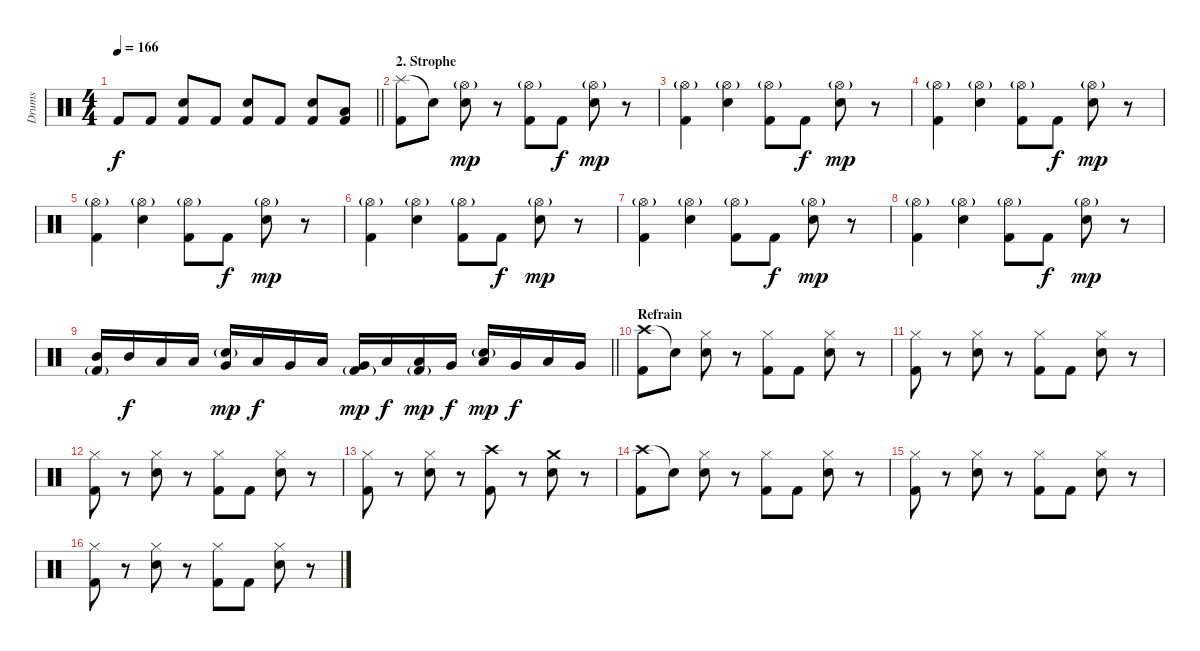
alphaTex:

\track ("Drums" "Drums") {instrument percussion}
\staff {score}
\articulation defaults
\ts (4 4)
\tempo 166
\clef neutral
\barLineRight lightlight
\ks c "Kick (hit) 2".8{dy f} "Kick (hit) 2".8
("Kick (hit) 2" "Electric Snare (hit)").8 "Kick (hit) 2".8 ("Kick (hit) 2" "Electric Snare (hit)").8 "Kick (hit) 2".8 ("Kick (hit) 2" "Electric Snare (hit)").8 ("Low Floor Tom (hit)" "Kick (hit) 2").8 |
\section ("" "2. Strophe")
("Splash (hit)" "Kick (hit) 2").8 "Snare (hit)"{t}.8 ("Hi-Hat (open)"{g} "Electric Snare (hit)").8{dy mp} r.8 ("Hi-Hat (open)"{g} "Kick (hit) 2").8 "Kick (hit) 2".8{dy f} ("Hi-Hat (open)"{g} "Electric Snare (hit)").8{dy mp} r.8 |
("Hi-Hat (open)"{g} "Kick (hit) 2").4 ("Hi-Hat (open)"{g} "Electric Snare (hit)").4 ("Hi-Hat (open)"{g} "Kick (hit) 2").8 "Kick (hit) 2".8{dy f} ("Hi-Hat (open)"{g} "Electric Snare (hit)").8{dy mp} r.8 |
("Hi-Hat (open)"{g} "Kick (hit) 2").4 ("Hi-Hat (open)"{g} "Electric Snare (hit)").4 ("Hi-Hat (open)"{g} "Kick (hit) 2").8 "Kick (hit) 2".8{dy f} ("Hi-Hat (open)"{g} "Electric Snare (hit)").8{dy mp} r.8 |
("Hi-Hat (open)"{g} "Kick (hit) 2").4 ("Hi-Hat (open)"{g} "Electric Snare (hit)").4 ("Hi-Hat (open)"{g} "Kick (hit) 2").8 "Kick (hit) 2".8{dy f} ("Hi-Hat (open)"{g} "Electric Snare (hit)").8{dy mp} r.8 |
("Hi-Hat (open)"{g} "Kick (hit) 2").4 ("Hi-Hat (open)"{g} "Electric Snare (hit)").4 ("Hi-Hat (open)"{g} "Kick (hit) 2").8 "Kick (hit) 2".8{dy f} ("Hi-Hat (open)"{g} "Electric Snare (hit)").8{dy mp} r.8 |
("Hi-Hat (open)"{g} "Kick (hit) 2").4 ("Hi-Hat (open)"{g} "Electric Snare (hit)").4 ("Hi-Hat (open)"{g} "Kick (hit) 2").8 "Kick (hit) 2".8{dy f} ("Hi-Hat (open)"{g} "Electric Snare (hit)").8{dy mp} r.8 |
("Hi-Hat (open)"{g} "Kick (hit) 2").4 ("Hi-Hat (open)"{g} "Electric Snare (hit)").4 ("Hi-Hat (open)"{g} "Kick (hit) 2").8 "Kick (hit) 2".8{dy f} ("Hi-Hat (open)"{g} "Electric Snare (hit)").8{dy mp} r.8 |
\barLineRight lightlight
("Mid Tom (hit)" "Kick (hit) 2"{g}).16 "Mid Tom (hit)".16{dy f} "Low Tom (hit)".16 "Low Tom (hit)".16 ("Very Low Tom (hit)" "Electric Snare (hit)"{g}).16{dy mp} "Low Tom (hit)".16{dy f} "Very Low Tom (hit)".16 "Low Floor Tom (hit)".16 ("Very Low Tom (hit)" "Kick (hit) 2"{g}).16{dy mp} "Low Floor Tom (hit)".16{dy f} ("Low Tom (hit)" "Kick (hit) 2"{g}).16{dy mp} "Very Low Tom (hit)".16{dy f} ("Low Tom (hit)" "Electric Snare (hit)"{g}).16{dy mp} "Very Low Tom (hit)".16{dy f} "Low Floor Tom (hit)".16 "Very Low Tom (hit)".16 |
\section ("" "Refrain")
("Crash high (hit)" "Kick (hit) 2").8 "Snare (hit)"{t}.8 ("Hi-Hat (closed)" "Electric Snare (hit)").8 r.8 ("Hi-Hat (closed)" "Kick (hit) 2").8 "Kick (hit) 2".8 ("Hi-Hat (closed)" "Electric Snare (hit)").8 r.8 |
("Hi-Hat (closed)" "Kick (hit) 2").8 r.8 ("Hi-Hat (closed)" "Electric Snare (hit)").8 r.8 ("Hi-Hat (closed)" "Kick (hit) 2").8 "Kick (hit) 2".8 ("Hi-Hat (closed)" "Electric Snare (hit)").8 r.8 |
("Hi-Hat (closed)" "Kick (hit) 2").8 r.8 ("Hi-Hat (closed)" "Electric Snare (hit)").8 r.8 ("Hi-Hat (closed)" "Kick (hit) 2").8 "Kick (hit) 2".8 ("Hi-Hat (closed)" "Electric Snare (hit)").8 r.8 |
("Hi-Hat (closed)" "Kick (hit) 2").8 r.8 ("Hi-Hat (closed)" "Electric Snare (hit)").8 r.8 ("Crash high (hit)" "Kick (hit) 2").8 r.8 ("Crash medium (hit)" "Electric Snare (hit)").8 r.8 |
("Crash high (hit)" "Kick (hit) 2").8 "Snare (hit)"{t}.8 ("Hi-Hat (closed)" "Electric Snare (hit)").8 r.8 ("Hi-Hat (closed)" "Kick (hit) 2").8 "Kick (hit) 2".8 ("Hi-Hat (closed)" "Electric Snare (hit)").8 r.8 |
("Hi-Hat (closed)" "Kick (hit) 2").8 r.8 ("Hi-Hat (closed)" "Electric Snare (hit)").8 r.8 ("Hi-Hat (closed)" "Kick (hit) 2").8 "Kick (hit) 2".8 ("Hi-Hat (closed)" "Electric Snare (hit)").8 r.8 |
("Hi-Hat (closed)" "Kick (hit) 2").8 r.8 ("Hi-Hat (closed)" "Electric Snare (hit)").8 r.8 ("Hi-Hat (closed)" "Kick (hit) 2").8 "Kick (hit) 2".8 ("Hi-Hat (closed)" "Electric Snare (hit)").8 r.8
